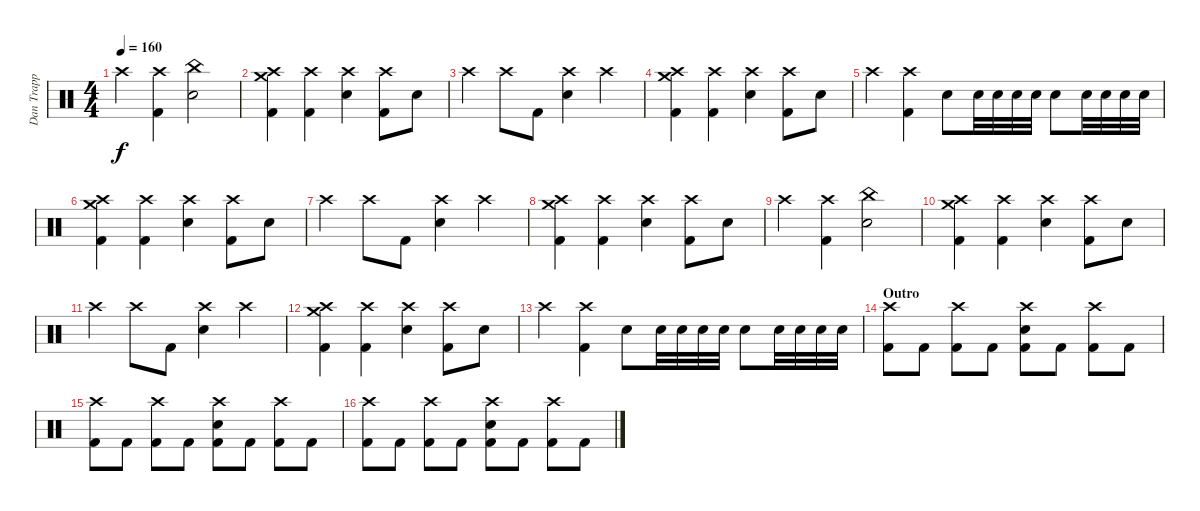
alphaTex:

\track ("Dan Trapp" "Dan Trapp") {instrument percussion}
\staff {score}
\articulation defaults
\ts (4 4)
\tempo 160
\clef neutral
\ks c "Crash high (hit)".4{dy f}
("Crash high (hit)" "Kick (hit) 2").4 ("China (hit)" "Snare (hit) 2").2 |
("Crash medium (hit)" "Crash high (hit)" "Kick (hit) 2").4 ("Crash high (hit)" "Kick (hit) 2").4 ("Crash high (hit)" "Snare (hit) 2").4 ("Crash high (hit)" "Kick (hit) 2").8 "Snare (hit) 2".8 |
"Crash high (hit)".4 "Crash high (hit)".8 "Kick (hit) 2".8 ("Crash high (hit)" "Snare (hit) 2").4 "Crash high (hit)".4 |
("Crash medium (hit)" "Crash high (hit)" "Kick (hit) 2").4 ("Crash high (hit)" "Kick (hit) 2").4 ("Crash high (hit)" "Snare (hit) 2").4 ("Crash high (hit)" "Kick (hit) 2").8 "Snare (hit) 2".8 |
"Crash high (hit)".4 ("Crash high (hit)" "Kick (hit) 2").4 "Snare (hit) 2".8 "Snare (hit) 2".32 "Snare (hit) 2".32 "Snare (hit) 2".32 "Snare (hit) 2".32 "Snare (hit) 2".8 "Snare (hit) 2".32 "Snare (hit) 2".32 "Snare (hit) 2".32 "Snare (hit) 2".32 |
("Crash medium (hit)" "Crash high (hit)" "Kick (hit) 2").4 ("Crash high (hit)" "Kick (hit) 2").4 ("Crash high (hit)" "Snare (hit) 2").4 ("Crash high (hit)" "Kick (hit) 2").8 "Snare (hit) 2".8 |
"Crash high (hit)".4 "Crash high (hit)".8 "Kick (hit) 2".8 ("Crash high (hit)" "Snare (hit) 2").4 "Crash high (hit)".4 |
("Crash medium (hit)" "Crash high (hit)" "Kick (hit) 2").4 ("Crash high (hit)" "Kick (hit) 2").4 ("Crash high (hit)" "Snare (hit) 2").4 ("Crash high (hit)" "Kick (hit) 2").8 "Snare (hit) 2".8 |
"Crash high (hit)".4 ("Crash high (hit)" "Kick (hit) 2").4 ("China (hit)" "Snare (hit) 2").2 |
("Crash medium (hit)" "Crash high (hit)" "Kick (hit) 2").4 ("Crash high (hit)" "Kick (hit) 2").4 ("Crash high (hit)" "Snare (hit) 2").4 ("Crash high (hit)" "Kick (hit) 2").8 "Snare (hit) 2".8 |
"Crash high (hit)".4 "Crash high (hit)".8 "Kick (hit) 2".8 ("Crash high (hit)" "Snare (hit) 2").4 "Crash high (hit)".4 |
("Crash medium (hit)" "Crash high (hit)" "Kick (hit) 2").4 ("Crash high (hit)" "Kick (hit) 2").4 ("Crash high (hit)" "Snare (hit) 2").4 ("Crash high (hit)" "Kick (hit) 2").8 "Snare (hit) 2".8 |
"Crash high (hit)".4 ("Crash high (hit)" "Kick (hit) 2").4 "Snare (hit) 2".8 "Snare (hit) 2".32 "Snare (hit) 2".32 "Snare (hit) 2".32 "Snare (hit) 2".32 "Snare (hit) 2".8 "Snare (hit) 2".32 "Snare (hit) 2".32 "Snare (hit) 2".32 "Snare (hit) 2".32 |
\section ("" "Outro")
("Crash high (hit)" "Kick (hit) 2").8 "Kick (hit) 2".8 ("Crash high (hit)" "Kick (hit) 2").8 "Kick (hit) 2".8 ("Crash high (hit)" "Snare (hit) 2" "Kick (hit) 2").8 "Kick (hit) 2".8 ("Crash high (hit)" "Kick (hit) 2").8 "Kick (hit) 2".8 |
("Crash high (hit)" "Kick (hit) 2").8 "Kick (hit) 2".8 ("Crash high (hit)" "Kick (hit) 2").8 "Kick (hit) 2".8 ("Crash high (hit)" "Snare (hit) 2" "Kick (hit) 2").8 "Kick (hit) 2".8 ("Crash high (hit)" "Kick (hit) 2").8 "Kick (hit) 2".8 |
("Crash high (hit)" "Kick (hit) 2").8 "Kick (hit) 2".8 ("Crash high (hit)" "Kick (hit) 2").8 "Kick (hit) 2".8 ("Crash high (hit)" "Snare (hit) 2" "Kick (hit) 2").8 "Kick (hit) 2".8 ("Crash high (hit)" "Kick (hit) 2").8 "Kick (hit) 2".8
